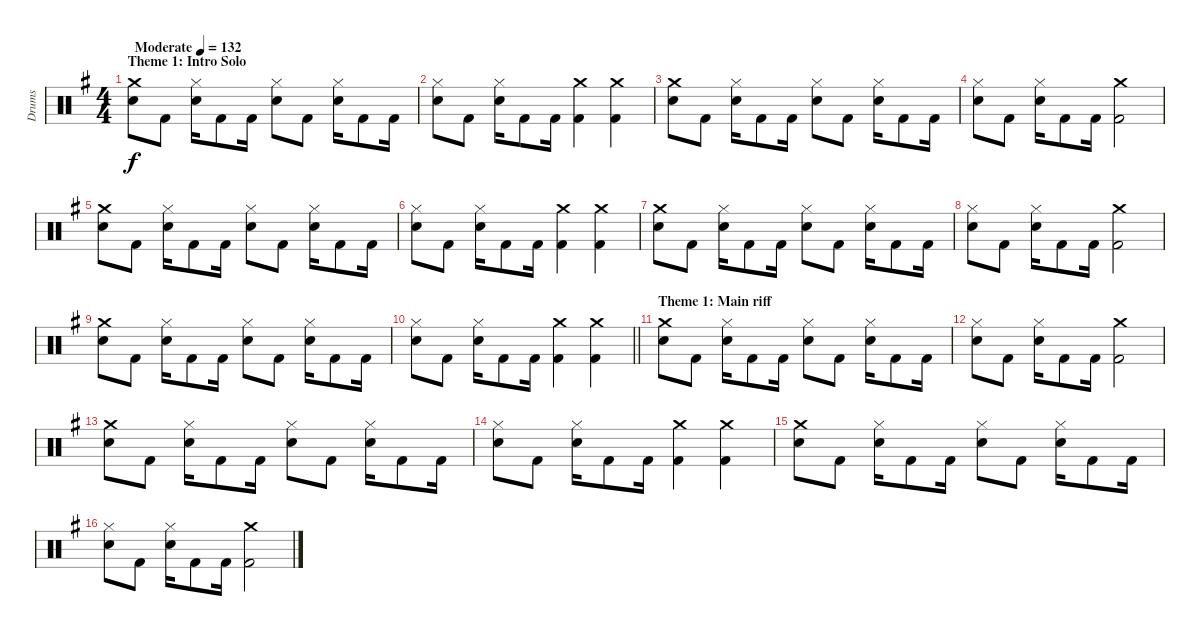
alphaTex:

\track ("Drums" "Drums") {instrument percussion}
\staff {score}
\articulation defaults
\ts (4 4)
\section ("" "Theme 1: Intro Solo")
\tempo (132 "Moderate")
\clef neutral
\ks g
("Crash medium (hit)" "Snare (hit) 2").8{dy f} "Kick (hit) 2".8 ("Hi-Hat (closed)" "Snare (hit) 2").16 "Kick (hit) 2".8 "Kick (hit) 2".16 ("Hi-Hat (closed)" "Snare (hit) 2").8 "Kick (hit) 2".8 ("Hi-Hat (closed)" "Snare (hit) 2").16 "Kick (hit) 2".8 "Kick (hit) 2".16 |
("Hi-Hat (closed)" "Snare (hit) 2").8 "Kick (hit) 2".8 ("Hi-Hat (closed)" "Snare (hit) 2").16 "Kick (hit) 2".8 "Kick (hit) 2".16 ("Crash medium (hit)" "Kick (hit) 2").4 ("Crash medium (hit)" "Kick (hit) 2").4 |
("Crash medium (hit)" "Snare (hit) 2").8 "Kick (hit) 2".8 ("Hi-Hat (closed)" "Snare (hit) 2").16 "Kick (hit) 2".8 "Kick (hit) 2".16 ("Hi-Hat (closed)" "Snare (hit) 2").8 "Kick (hit) 2".8 ("Hi-Hat (closed)" "Snare (hit) 2").16 "Kick (hit) 2".8 "Kick (hit) 2".16 |
("Hi-Hat (closed)" "Snare (hit) 2").8 "Kick (hit) 2".8 ("Hi-Hat (closed)" "Snare (hit) 2").16 "Kick (hit) 2".8 "Kick (hit) 2".16 ("Crash medium (hit)" "Kick (hit) 2").2 |
("Crash medium (hit)" "Snare (hit) 2").8 "Kick (hit) 2".8 ("Hi-Hat (closed)" "Snare (hit) 2").16 "Kick (hit) 2".8 "Kick (hit) 2".16 ("Hi-Hat (closed)" "Snare (hit) 2").8 "Kick (hit) 2".8 ("Hi-Hat (closed)" "Snare (hit) 2").16 "Kick (hit) 2".8 "Kick (hit) 2".16 |
("Hi-Hat (closed)" "Snare (hit) 2").8 "Kick (hit) 2".8 ("Hi-Hat (closed)" "Snare (hit) 2").16 "Kick (hit) 2".8 "Kick (hit) 2".16 ("Crash medium (hit)" "Kick (hit) 2").4 ("Crash medium (hit)" "Kick (hit) 2").4 |
("Crash medium (hit)" "Snare (hit) 2").8 "Kick (hit) 2".8 ("Hi-Hat (closed)" "Snare (hit) 2").16 "Kick (hit) 2".8 "Kick (hit) 2".16 ("Hi-Hat (closed)" "Snare (hit) 2").8 "Kick (hit) 2".8 ("Hi-Hat (closed)" "Snare (hit) 2").16 "Kick (hit) 2".8 "Kick (hit) 2".16 |
("Hi-Hat (closed)" "Snare (hit) 2").8 "Kick (hit) 2".8 ("Hi-Hat (closed)" "Snare (hit) 2").16 "Kick (hit) 2".8 "Kick (hit) 2".16 ("Crash medium (hit)" "Kick (hit) 2").2 |
("Crash medium (hit)" "Snare (hit) 2").8 "Kick (hit) 2".8 ("Hi-Hat (closed)" "Snare (hit) 2").16 "Kick (hit) 2".8 "Kick (hit) 2".16 ("Hi-Hat (closed)" "Snare (hit) 2").8 "Kick (hit) 2".8 ("Hi-Hat (closed)" "Snare (hit) 2").16 "Kick (hit) 2".8 "Kick (hit) 2".16 |
\barLineRight lightlight
("Hi-Hat (closed)" "Snare (hit) 2").8 "Kick (hit) 2".8 ("Hi-Hat (closed)" "Snare (hit) 2").16 "Kick (hit) 2".8 "Kick (hit) 2".16 ("Crash medium (hit)" "Kick (hit) 2").4 ("Crash medium (hit)" "Kick (hit) 2").4 |
\section ("" "Theme 1: Main riff")
("Crash medium (hit)" "Snare (hit) 2").8 "Kick (hit) 2".8 ("Hi-Hat (closed)" "Snare (hit) 2").16 "Kick (hit) 2".8 "Kick (hit) 2".16 ("Hi-Hat (closed)" "Snare (hit) 2").8 "Kick (hit) 2".8 ("Hi-Hat (closed)" "Snare (hit) 2").16 "Kick (hit) 2".8 "Kick (hit) 2".16 |
("Hi-Hat (closed)" "Snare (hit) 2").8 "Kick (hit) 2".8 ("Hi-Hat (closed)" "Snare (hit) 2").16 "Kick (hit) 2".8 "Kick (hit) 2".16 ("Crash medium (hit)" "Kick (hit) 2").2 |
("Crash medium (hit)" "Snare (hit) 2").8 "Kick (hit) 2".8 ("Hi-Hat (closed)" "Snare (hit) 2").16 "Kick (hit) 2".8 "Kick (hit) 2".16 ("Hi-Hat (closed)" "Snare (hit) 2").8 "Kick (hit) 2".8 ("Hi-Hat (closed)" "Snare (hit) 2").16 "Kick (hit) 2".8 "Kick (hit) 2".16 |
("Hi-Hat (closed)" "Snare (hit) 2").8 "Kick (hit) 2".8 ("Hi-Hat (closed)" "Snare (hit) 2").16 "Kick (hit) 2".8 "Kick (hit) 2".16 ("Crash medium (hit)" "Kick (hit) 2").4 ("Crash medium (hit)" "Kick (hit) 2").4 |
("Crash medium (hit)" "Snare (hit) 2").8 "Kick (hit) 2".8 ("Hi-Hat (closed)" "Snare (hit) 2").16 "Kick (hit) 2".8 "Kick (hit) 2".16 ("Hi-Hat (closed)" "Snare (hit) 2").8 "Kick (hit) 2".8 ("Hi-Hat (closed)" "Snare (hit) 2").16 "Kick (hit) 2".8 "Kick (hit) 2".16 |
("Hi-Hat (closed)" "Snare (hit) 2").8 "Kick (hit) 2".8 ("Hi-Hat (closed)" "Snare (hit) 2").16 "Kick (hit) 2".8 "Kick (hit) 2".16 ("Crash medium (hit)" "Kick (hit) 2").2
